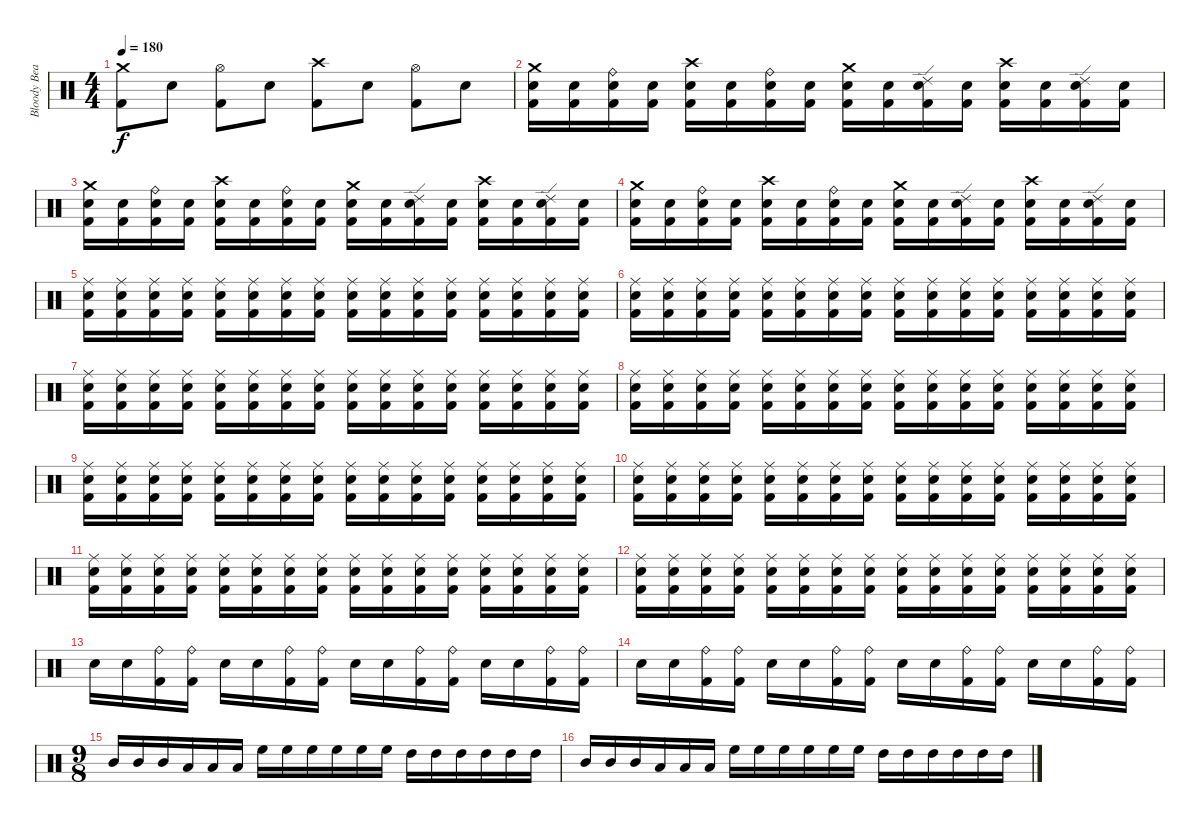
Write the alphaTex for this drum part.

\track ("Bloody Beater" "Bloody Bea") {instrument percussion}
\staff {score}
\articulation defaults
\ts (4 4)
\tempo 180
\clef neutral
\ks c
("Crash medium (hit)" "Kick (hit) 2").8{dy f} "Snare (hit) 2".8 ("Hi-Hat (open)" "Kick (hit) 2").8 "Snare (hit) 2".8 ("Crash high (hit)" "Kick (hit) 2").8 "Snare (hit) 2".8 ("Hi-Hat (open)" "Kick (hit) 2").8 "Snare (hit) 2".8 |
("Crash medium (hit)" "Snare (hit) 2" "Kick (hit) 2").16 ("Snare (hit) 2" "Kick (hit) 2").16 ("Ride (bell)" "Snare (hit) 2" "Kick (hit) 2").16 ("Snare (hit) 2" "Kick (hit) 2").16 ("Crash high (hit)" "Snare (hit) 2" "Kick (hit) 2").16 ("Snare (hit) 2" "Kick (hit) 2").16 ("Ride (bell)" "Snare (hit) 2" "Kick (hit) 2").16 ("Snare (hit) 2" "Kick (hit) 2").16 ("Crash medium (hit)" "Snare (hit) 2" "Kick (hit) 2").16 ("Snare (hit) 2" "Kick (hit) 2").16 ("Ride (edge) 2" "Snare (hit) 2" "Kick (hit) 2").16 ("Snare (hit) 2" "Kick (hit) 2").16 ("Crash high (hit)" "Snare (hit) 2" "Kick (hit) 2").16 ("Snare (hit) 2" "Kick (hit) 2").16 ("Ride (edge) 2" "Snare (hit) 2" "Kick (hit) 2").16 ("Snare (hit) 2" "Kick (hit) 2").16 |
("Crash medium (hit)" "Snare (hit) 2" "Kick (hit) 2").16 ("Snare (hit) 2" "Kick (hit) 2").16 ("Ride (bell)" "Snare (hit) 2" "Kick (hit) 2").16 ("Snare (hit) 2" "Kick (hit) 2").16 ("Crash high (hit)" "Snare (hit) 2" "Kick (hit) 2").16 ("Snare (hit) 2" "Kick (hit) 2").16 ("Ride (bell)" "Snare (hit) 2" "Kick (hit) 2").16 ("Snare (hit) 2" "Kick (hit) 2").16 ("Crash medium (hit)" "Snare (hit) 2" "Kick (hit) 2").16 ("Snare (hit) 2" "Kick (hit) 2").16 ("Ride (edge) 2" "Snare (hit) 2" "Kick (hit) 2").16 ("Snare (hit) 2" "Kick (hit) 2").16 ("Crash high (hit)" "Snare (hit) 2" "Kick (hit) 2").16 ("Snare (hit) 2" "Kick (hit) 2").16 ("Ride (edge) 2" "Snare (hit) 2" "Kick (hit) 2").16 ("Snare (hit) 2" "Kick (hit) 2").16 |
("Crash medium (hit)" "Snare (hit) 2" "Kick (hit) 2").16 ("Snare (hit) 2" "Kick (hit) 2").16 ("Ride (bell)" "Snare (hit) 2" "Kick (hit) 2").16 ("Snare (hit) 2" "Kick (hit) 2").16 ("Crash high (hit)" "Snare (hit) 2" "Kick (hit) 2").16 ("Snare (hit) 2" "Kick (hit) 2").16 ("Ride (bell)" "Snare (hit) 2" "Kick (hit) 2").16 ("Snare (hit) 2" "Kick (hit) 2").16 ("Crash medium (hit)" "Snare (hit) 2" "Kick (hit) 2").16 ("Snare (hit) 2" "Kick (hit) 2").16 ("Ride (edge) 2" "Snare (hit) 2" "Kick (hit) 2").16 ("Snare (hit) 2" "Kick (hit) 2").16 ("Crash high (hit)" "Snare (hit) 2" "Kick (hit) 2").16 ("Snare (hit) 2" "Kick (hit) 2").16 ("Ride (edge) 2" "Snare (hit) 2" "Kick (hit) 2").16 ("Snare (hit) 2" "Kick (hit) 2").16 |
("Ride (middle)" "Snare (hit) 2" "Kick (hit) 2").16 ("Ride (middle)" "Snare (hit) 2" "Kick (hit) 2").16 ("Ride (middle)" "Snare (hit) 2" "Kick (hit) 2").16 ("Ride (middle)" "Snare (hit) 2" "Kick (hit) 2").16 ("Ride (middle)" "Snare (hit) 2" "Kick (hit) 2").16 ("Ride (middle)" "Snare (hit) 2" "Kick (hit) 2").16 ("Ride (middle)" "Snare (hit) 2" "Kick (hit) 2").16 ("Ride (middle)" "Snare (hit) 2" "Kick (hit) 2").16 ("Ride (middle)" "Snare (hit) 2" "Kick (hit) 2").16 ("Ride (middle)" "Snare (hit) 2" "Kick (hit) 2").16 ("Ride (middle)" "Snare (hit) 2" "Kick (hit) 2").16 ("Ride (middle)" "Snare (hit) 2" "Kick (hit) 2").16 ("Ride (middle)" "Snare (hit) 2" "Kick (hit) 2").16 ("Ride (middle)" "Snare (hit) 2" "Kick (hit) 2").16 ("Ride (middle)" "Snare (hit) 2" "Kick (hit) 2").16 ("Ride (middle)" "Snare (hit) 2" "Kick (hit) 2").16 |
("Ride (middle)" "Snare (hit) 2" "Kick (hit) 2").16 ("Ride (middle)" "Snare (hit) 2" "Kick (hit) 2").16 ("Ride (middle)" "Snare (hit) 2" "Kick (hit) 2").16 ("Ride (middle)" "Snare (hit) 2" "Kick (hit) 2").16 ("Ride (middle)" "Snare (hit) 2" "Kick (hit) 2").16 ("Ride (middle)" "Snare (hit) 2" "Kick (hit) 2").16 ("Ride (middle)" "Snare (hit) 2" "Kick (hit) 2").16 ("Ride (middle)" "Snare (hit) 2" "Kick (hit) 2").16 ("Ride (middle)" "Snare (hit) 2" "Kick (hit) 2").16 ("Ride (middle)" "Snare (hit) 2" "Kick (hit) 2").16 ("Ride (middle)" "Snare (hit) 2" "Kick (hit) 2").16 ("Ride (middle)" "Snare (hit) 2" "Kick (hit) 2").16 ("Ride (middle)" "Snare (hit) 2" "Kick (hit) 2").16 ("Ride (middle)" "Snare (hit) 2" "Kick (hit) 2").16 ("Ride (middle)" "Snare (hit) 2" "Kick (hit) 2").16 ("Ride (middle)" "Snare (hit) 2" "Kick (hit) 2").16 |
("Ride (middle)" "Snare (hit) 2" "Kick (hit) 2").16 ("Ride (middle)" "Snare (hit) 2" "Kick (hit) 2").16 ("Ride (middle)" "Snare (hit) 2" "Kick (hit) 2").16 ("Ride (middle)" "Snare (hit) 2" "Kick (hit) 2").16 ("Ride (middle)" "Snare (hit) 2" "Kick (hit) 2").16 ("Ride (middle)" "Snare (hit) 2" "Kick (hit) 2").16 ("Ride (middle)" "Snare (hit) 2" "Kick (hit) 2").16 ("Ride (middle)" "Snare (hit) 2" "Kick (hit) 2").16 ("Ride (middle)" "Snare (hit) 2" "Kick (hit) 2").16 ("Ride (middle)" "Snare (hit) 2" "Kick (hit) 2").16 ("Ride (middle)" "Snare (hit) 2" "Kick (hit) 2").16 ("Ride (middle)" "Snare (hit) 2" "Kick (hit) 2").16 ("Ride (middle)" "Snare (hit) 2" "Kick (hit) 2").16 ("Ride (middle)" "Snare (hit) 2" "Kick (hit) 2").16 ("Ride (middle)" "Snare (hit) 2" "Kick (hit) 2").16 ("Ride (middle)" "Snare (hit) 2" "Kick (hit) 2").16 |
("Ride (middle)" "Snare (hit) 2" "Kick (hit) 2").16 ("Ride (middle)" "Snare (hit) 2" "Kick (hit) 2").16 ("Ride (middle)" "Snare (hit) 2" "Kick (hit) 2").16 ("Ride (middle)" "Snare (hit) 2" "Kick (hit) 2").16 ("Ride (middle)" "Snare (hit) 2" "Kick (hit) 2").16 ("Ride (middle)" "Snare (hit) 2" "Kick (hit) 2").16 ("Ride (middle)" "Snare (hit) 2" "Kick (hit) 2").16 ("Ride (middle)" "Snare (hit) 2" "Kick (hit) 2").16 ("Ride (middle)" "Snare (hit) 2" "Kick (hit) 2").16 ("Ride (middle)" "Snare (hit) 2" "Kick (hit) 2").16 ("Ride (middle)" "Snare (hit) 2" "Kick (hit) 2").16 ("Ride (middle)" "Snare (hit) 2" "Kick (hit) 2").16 ("Ride (middle)" "Snare (hit) 2" "Kick (hit) 2").16 ("Ride (middle)" "Snare (hit) 2" "Kick (hit) 2").16 ("Ride (middle)" "Snare (hit) 2" "Kick (hit) 2").16 ("Ride (middle)" "Snare (hit) 2" "Kick (hit) 2").16 |
("Ride (middle)" "Snare (hit) 2" "Kick (hit) 2").16 ("Ride (middle)" "Snare (hit) 2" "Kick (hit) 2").16 ("Ride (middle)" "Snare (hit) 2" "Kick (hit) 2").16 ("Ride (middle)" "Snare (hit) 2" "Kick (hit) 2").16 ("Ride (middle)" "Snare (hit) 2" "Kick (hit) 2").16 ("Ride (middle)" "Snare (hit) 2" "Kick (hit) 2").16 ("Ride (middle)" "Snare (hit) 2" "Kick (hit) 2").16 ("Ride (middle)" "Snare (hit) 2" "Kick (hit) 2").16 ("Ride (middle)" "Snare (hit) 2" "Kick (hit) 2").16 ("Ride (middle)" "Snare (hit) 2" "Kick (hit) 2").16 ("Ride (middle)" "Snare (hit) 2" "Kick (hit) 2").16 ("Ride (middle)" "Snare (hit) 2" "Kick (hit) 2").16 ("Ride (middle)" "Snare (hit) 2" "Kick (hit) 2").16 ("Ride (middle)" "Snare (hit) 2" "Kick (hit) 2").16 ("Ride (middle)" "Snare (hit) 2" "Kick (hit) 2").16 ("Ride (middle)" "Snare (hit) 2" "Kick (hit) 2").16 |
("Ride (middle)" "Snare (hit) 2" "Kick (hit) 2").16 ("Ride (middle)" "Snare (hit) 2" "Kick (hit) 2").16 ("Ride (middle)" "Snare (hit) 2" "Kick (hit) 2").16 ("Ride (middle)" "Snare (hit) 2" "Kick (hit) 2").16 ("Ride (middle)" "Snare (hit) 2" "Kick (hit) 2").16 ("Ride (middle)" "Snare (hit) 2" "Kick (hit) 2").16 ("Ride (middle)" "Snare (hit) 2" "Kick (hit) 2").16 ("Ride (middle)" "Snare (hit) 2" "Kick (hit) 2").16 ("Ride (middle)" "Snare (hit) 2" "Kick (hit) 2").16 ("Ride (middle)" "Snare (hit) 2" "Kick (hit) 2").16 ("Ride (middle)" "Snare (hit) 2" "Kick (hit) 2").16 ("Ride (middle)" "Snare (hit) 2" "Kick (hit) 2").16 ("Ride (middle)" "Snare (hit) 2" "Kick (hit) 2").16 ("Ride (middle)" "Snare (hit) 2" "Kick (hit) 2").16 ("Ride (middle)" "Snare (hit) 2" "Kick (hit) 2").16 ("Ride (middle)" "Snare (hit) 2" "Kick (hit) 2").16 |
("Ride (middle)" "Snare (hit) 2" "Kick (hit) 2").16 ("Ride (middle)" "Snare (hit) 2" "Kick (hit) 2").16 ("Ride (middle)" "Snare (hit) 2" "Kick (hit) 2").16 ("Ride (middle)" "Snare (hit) 2" "Kick (hit) 2").16 ("Ride (middle)" "Snare (hit) 2" "Kick (hit) 2").16 ("Ride (middle)" "Snare (hit) 2" "Kick (hit) 2").16 ("Ride (middle)" "Snare (hit) 2" "Kick (hit) 2").16 ("Ride (middle)" "Snare (hit) 2" "Kick (hit) 2").16 ("Ride (middle)" "Snare (hit) 2" "Kick (hit) 2").16 ("Ride (middle)" "Snare (hit) 2" "Kick (hit) 2").16 ("Ride (middle)" "Snare (hit) 2" "Kick (hit) 2").16 ("Ride (middle)" "Snare (hit) 2" "Kick (hit) 2").16 ("Ride (middle)" "Snare (hit) 2" "Kick (hit) 2").16 ("Ride (middle)" "Snare (hit) 2" "Kick (hit) 2").16 ("Ride (middle)" "Snare (hit) 2" "Kick (hit) 2").16 ("Ride (middle)" "Snare (hit) 2" "Kick (hit) 2").16 |
("Ride (middle)" "Snare (hit) 2" "Kick (hit) 2").16 ("Ride (middle)" "Snare (hit) 2" "Kick (hit) 2").16 ("Ride (middle)" "Snare (hit) 2" "Kick (hit) 2").16 ("Ride (middle)" "Snare (hit) 2" "Kick (hit) 2").16 ("Ride (middle)" "Snare (hit) 2" "Kick (hit) 2").16 ("Ride (middle)" "Snare (hit) 2" "Kick (hit) 2").16 ("Ride (middle)" "Snare (hit) 2" "Kick (hit) 2").16 ("Ride (middle)" "Snare (hit) 2" "Kick (hit) 2").16 ("Ride (middle)" "Snare (hit) 2" "Kick (hit) 2").16 ("Ride (middle)" "Snare (hit) 2" "Kick (hit) 2").16 ("Ride (middle)" "Snare (hit) 2" "Kick (hit) 2").16 ("Ride (middle)" "Snare (hit) 2" "Kick (hit) 2").16 ("Ride (middle)" "Snare (hit) 2" "Kick (hit) 2").16 ("Ride (middle)" "Snare (hit) 2" "Kick (hit) 2").16 ("Ride (middle)" "Snare (hit) 2" "Kick (hit) 2").16 ("Ride (middle)" "Snare (hit) 2" "Kick (hit) 2").16 |
"Snare (hit) 2".16 "Snare (hit) 2".16 ("Ride (bell)" "Kick (hit) 2").16 ("Ride (bell)" "Kick (hit) 2").16 "Snare (hit) 2".16 "Snare (hit) 2".16 ("Ride (bell)" "Kick (hit) 2").16 ("Ride (bell)" "Kick (hit) 2").16 "Snare (hit) 2".16 "Snare (hit) 2".16 ("Ride (bell)" "Kick (hit) 2").16 ("Ride (bell)" "Kick (hit) 2").16 "Snare (hit) 2".16 "Snare (hit) 2".16 ("Ride (bell)" "Kick (hit) 2").16 ("Ride (bell)" "Kick (hit) 2").16 |
"Snare (hit) 2".16 "Snare (hit) 2".16 ("Ride (bell)" "Kick (hit) 2").16 ("Ride (bell)" "Kick (hit) 2").16 "Snare (hit) 2".16 "Snare (hit) 2".16 ("Ride (bell)" "Kick (hit) 2").16 ("Ride (bell)" "Kick (hit) 2").16 "Snare (hit) 2".16 "Snare (hit) 2".16 ("Ride (bell)" "Kick (hit) 2").16 ("Ride (bell)" "Kick (hit) 2").16 "Snare (hit) 2".16 "Snare (hit) 2".16 ("Ride (bell)" "Kick (hit) 2").16 ("Ride (bell)" "Kick (hit) 2").16 |
\ts (9 8)
"Mid Tom (hit)".16 "Mid Tom (hit)".16 "Mid Tom (hit)".16 "Low Tom (hit)".16 "Low Tom (hit)".16 "Low Tom (hit)".16 "High Floor Tom (hit)".16 "High Floor Tom (hit)".16 "High Floor Tom (hit)".16 "High Floor Tom (hit)".16 "High Floor Tom (hit)".16 "High Floor Tom (hit)".16 "High Tom (hit)".16 "High Tom (hit)".16 "High Tom (hit)".16 "High Tom (hit)".16 "High Tom (hit)".16 "High Tom (hit)".16 |
"Mid Tom (hit)".16 "Mid Tom (hit)".16 "Mid Tom (hit)".16 "Low Tom (hit)".16 "Low Tom (hit)".16 "Low Tom (hit)".16 "High Floor Tom (hit)".16 "High Floor Tom (hit)".16 "High Floor Tom (hit)".16 "High Floor Tom (hit)".16 "High Floor Tom (hit)".16 "High Floor Tom (hit)".16 "High Tom (hit)".16 "High Tom (hit)".16 "High Tom (hit)".16 "High Tom (hit)".16 "High Tom (hit)".16 "High Tom (hit)".16
